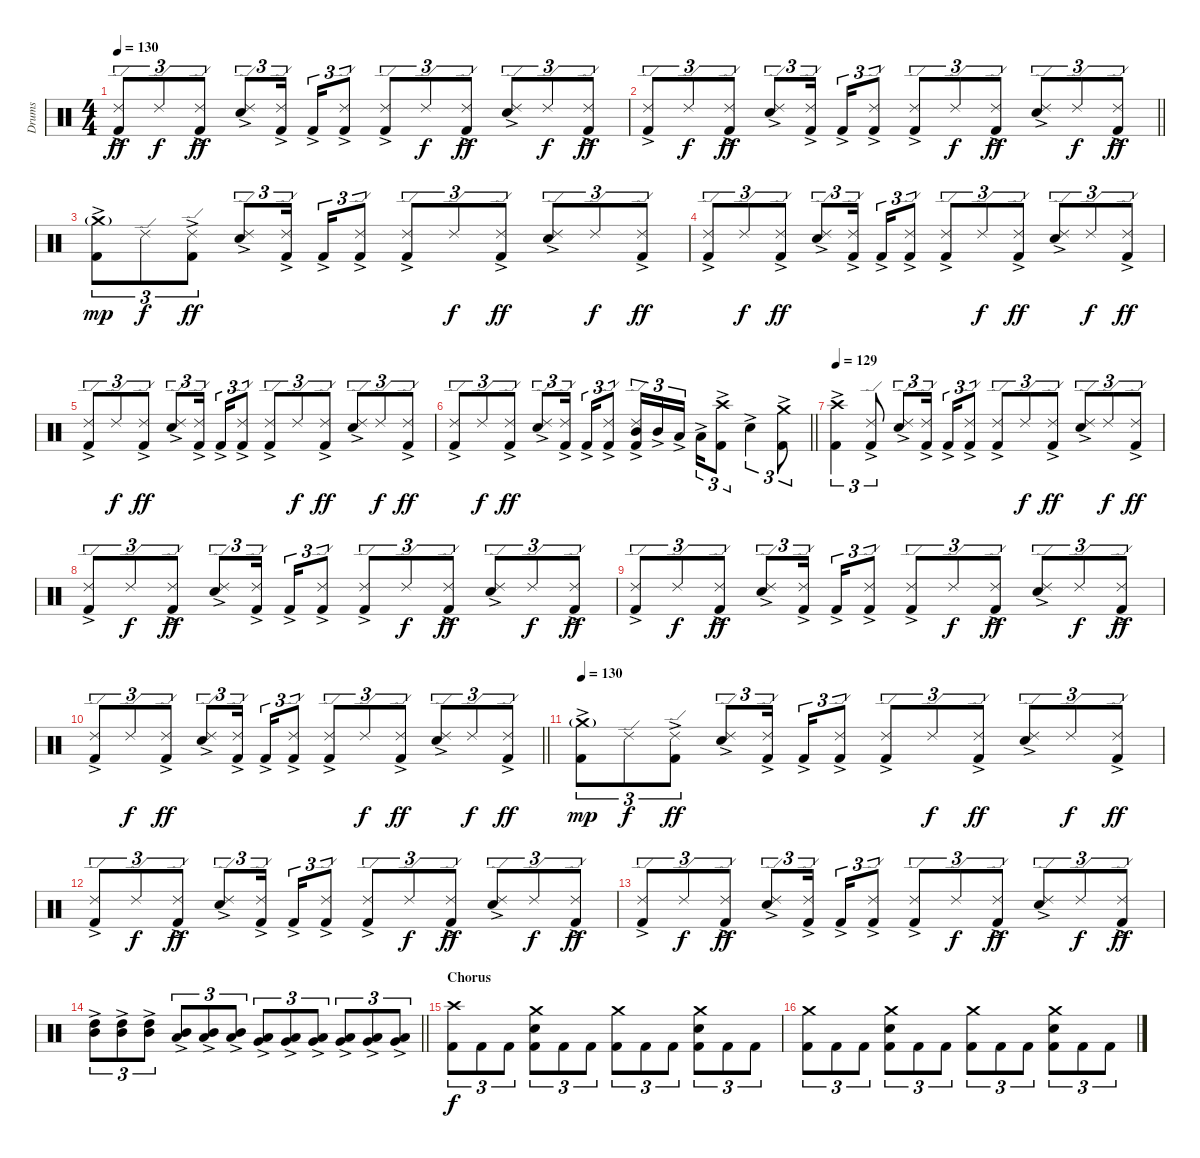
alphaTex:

\track ("Drums" "Drums") {instrument percussion}
\staff {score}
\articulation defaults
\ts (4 4)
\tempo 130
\clef neutral
\ks c
("Kick (hit) 2"{ac} "Ride (edge) 2").8{tu (3 2) dy ff} "Ride (edge) 2".8{tu (3 2) dy f} ("Kick (hit) 2"{ac} "Ride (edge) 2").8{tu (3 2) dy ff} ("Snare (hit) 2"{ac} "Ride (edge) 2").8{tu (3 2)} ("Kick (hit) 2"{ac} "Ride (edge) 2").16{tu (3 2) beam splitsecondary} "Kick (hit) 2"{ac}.16{tu (3 2)} ("Kick (hit) 2"{ac} "Ride (edge) 2").8{tu (3 2)} ("Kick (hit) 2"{ac} "Ride (edge) 2").8{tu (3 2)} "Ride (edge) 2".8{tu (3 2) dy f} ("Kick (hit) 2"{ac} "Ride (edge) 2").8{tu (3 2) dy ff} ("Snare (hit) 2"{ac} "Ride (edge) 2").8{tu (3 2)} "Ride (edge) 2".8{tu (3 2) dy f} ("Kick (hit) 2"{ac} "Ride (edge) 2").8{tu (3 2) dy ff} |
\barLineRight lightlight
("Kick (hit) 2"{ac} "Ride (edge) 2").8{tu (3 2)} "Ride (edge) 2".8{tu (3 2) dy f} ("Kick (hit) 2"{ac} "Ride (edge) 2").8{tu (3 2) dy ff} ("Snare (hit) 2"{ac} "Ride (edge) 2").8{tu (3 2)} ("Kick (hit) 2"{ac} "Ride (edge) 2").16{tu (3 2) beam splitsecondary} "Kick (hit) 2"{ac}.16{tu (3 2)} ("Kick (hit) 2"{ac} "Ride (edge) 2").8{tu (3 2)} ("Kick (hit) 2"{ac} "Ride (edge) 2").8{tu (3 2)} "Ride (edge) 2".8{tu (3 2) dy f} ("Kick (hit) 2"{ac} "Ride (edge) 2").8{tu (3 2) dy ff} ("Snare (hit) 2"{ac} "Ride (edge) 2").8{tu (3 2)} "Ride (edge) 2".8{tu (3 2) dy f} ("Kick (hit) 2"{ac} "Ride (edge) 2").8{tu (3 2) dy ff} |
\section ("" "")
("Kick (hit) 2"{ac} "Crash medium (hit)"{g}).8{tu (3 2) dy mp} "Ride (edge) 2".8{tu (3 2) dy f} ("Kick (hit) 2"{ac} "Ride (edge) 2").8{tu (3 2) dy ff} ("Snare (hit) 2"{ac} "Ride (edge) 2").8{tu (3 2)} ("Kick (hit) 2"{ac} "Ride (edge) 2").16{tu (3 2) beam splitsecondary} "Kick (hit) 2"{ac}.16{tu (3 2)} ("Kick (hit) 2"{ac} "Ride (edge) 2").8{tu (3 2)} ("Kick (hit) 2"{ac} "Ride (edge) 2").8{tu (3 2)} "Ride (edge) 2".8{tu (3 2) dy f} ("Kick (hit) 2"{ac} "Ride (edge) 2").8{tu (3 2) dy ff} ("Snare (hit) 2"{ac} "Ride (edge) 2").8{tu (3 2)} "Ride (edge) 2".8{tu (3 2) dy f} ("Kick (hit) 2"{ac} "Ride (edge) 2").8{tu (3 2) dy ff} |
("Kick (hit) 2"{ac} "Ride (edge) 2").8{tu (3 2)} "Ride (edge) 2".8{tu (3 2) dy f} ("Kick (hit) 2"{ac} "Ride (edge) 2").8{tu (3 2) dy ff} ("Snare (hit) 2"{ac} "Ride (edge) 2").8{tu (3 2)} ("Kick (hit) 2"{ac} "Ride (edge) 2").16{tu (3 2) beam splitsecondary} "Kick (hit) 2"{ac}.16{tu (3 2)} ("Kick (hit) 2"{ac} "Ride (edge) 2").8{tu (3 2)} ("Kick (hit) 2"{ac} "Ride (edge) 2").8{tu (3 2)} "Ride (edge) 2".8{tu (3 2) dy f} ("Kick (hit) 2"{ac} "Ride (edge) 2").8{tu (3 2) dy ff} ("Snare (hit) 2"{ac} "Ride (edge) 2").8{tu (3 2)} "Ride (edge) 2".8{tu (3 2) dy f} ("Kick (hit) 2"{ac} "Ride (edge) 2").8{tu (3 2) dy ff} |
("Kick (hit) 2"{ac} "Ride (edge) 2").8{tu (3 2)} "Ride (edge) 2".8{tu (3 2) dy f} ("Kick (hit) 2"{ac} "Ride (edge) 2").8{tu (3 2) dy ff} ("Snare (hit) 2"{ac} "Ride (edge) 2").8{tu (3 2)} ("Kick (hit) 2"{ac} "Ride (edge) 2").16{tu (3 2) beam splitsecondary} "Kick (hit) 2"{ac}.16{tu (3 2)} ("Kick (hit) 2"{ac} "Ride (edge) 2").8{tu (3 2)} ("Kick (hit) 2"{ac} "Ride (edge) 2").8{tu (3 2)} "Ride (edge) 2".8{tu (3 2) dy f} ("Kick (hit) 2"{ac} "Ride (edge) 2").8{tu (3 2) dy ff} ("Snare (hit) 2"{ac} "Ride (edge) 2").8{tu (3 2)} "Ride (edge) 2".8{tu (3 2) dy f} ("Kick (hit) 2"{ac} "Ride (edge) 2").8{tu (3 2) dy ff} |
\barLineRight lightlight
("Kick (hit) 2"{ac} "Ride (edge) 2").8{tu (3 2)} "Ride (edge) 2".8{tu (3 2) dy f} ("Kick (hit) 2"{ac} "Ride (edge) 2").8{tu (3 2) dy ff} ("Snare (hit) 2"{ac} "Ride (edge) 2").8{tu (3 2)} ("Kick (hit) 2"{ac} "Ride (edge) 2").16{tu (3 2) beam splitsecondary} "Kick (hit) 2"{ac}.16{tu (3 2)} ("Kick (hit) 2"{ac} "Ride (edge) 2").8{tu (3 2)} ("Kick (hit) 2"{ac} "Mid Tom (hit)"{ac} "Ride (edge) 2").16{tu (3 2)} "Mid Tom (hit)"{ac}.16{tu (3 2)} "Low Tom (hit)"{ac}.16{tu (3 2) beam splitsecondary} "Low Tom (hit)"{ac}.16{tu (3 2)} ("Kick (hit) 2"{ac} "Crash high (hit)").8{tu (3 2)} "Snare (hit) 2"{ac}.4{tu (3 2)} ("Kick (hit) 2"{ac} "Crash medium (hit)").8{tu (3 2)} |
\section ("" "")
\tempo 129
("Kick (hit) 2"{ac} "Crash high (hit)").4{tu (3 2)} ("Kick (hit) 2"{ac} "Ride (edge) 2").8{tu (3 2)} ("Snare (hit) 2"{ac} "Ride (edge) 2").8{tu (3 2)} ("Kick (hit) 2"{ac} "Ride (edge) 2").16{tu (3 2) beam splitsecondary} "Kick (hit) 2"{ac}.16{tu (3 2)} ("Kick (hit) 2"{ac} "Ride (edge) 2").8{tu (3 2)} ("Kick (hit) 2"{ac} "Ride (edge) 2").8{tu (3 2)} "Ride (edge) 2".8{tu (3 2) dy f} ("Kick (hit) 2"{ac} "Ride (edge) 2").8{tu (3 2) dy ff} ("Snare (hit) 2"{ac} "Ride (edge) 2").8{tu (3 2)} "Ride (edge) 2".8{tu (3 2) dy f} ("Kick (hit) 2"{ac} "Ride (edge) 2").8{tu (3 2) dy ff} |
("Kick (hit) 2"{ac} "Ride (edge) 2").8{tu (3 2)} "Ride (edge) 2".8{tu (3 2) dy f} ("Kick (hit) 2"{ac} "Ride (edge) 2").8{tu (3 2) dy ff} ("Snare (hit) 2"{ac} "Ride (edge) 2").8{tu (3 2)} ("Kick (hit) 2"{ac} "Ride (edge) 2").16{tu (3 2) beam splitsecondary} "Kick (hit) 2"{ac}.16{tu (3 2)} ("Kick (hit) 2"{ac} "Ride (edge) 2").8{tu (3 2)} ("Kick (hit) 2"{ac} "Ride (edge) 2").8{tu (3 2)} "Ride (edge) 2".8{tu (3 2) dy f} ("Kick (hit) 2"{ac} "Ride (edge) 2").8{tu (3 2) dy ff} ("Snare (hit) 2"{ac} "Ride (edge) 2").8{tu (3 2)} "Ride (edge) 2".8{tu (3 2) dy f} ("Kick (hit) 2"{ac} "Ride (edge) 2").8{tu (3 2) dy ff} |
("Kick (hit) 2"{ac} "Ride (edge) 2").8{tu (3 2)} "Ride (edge) 2".8{tu (3 2) dy f} ("Kick (hit) 2"{ac} "Ride (edge) 2").8{tu (3 2) dy ff} ("Snare (hit) 2"{ac} "Ride (edge) 2").8{tu (3 2)} ("Kick (hit) 2"{ac} "Ride (edge) 2").16{tu (3 2) beam splitsecondary} "Kick (hit) 2"{ac}.16{tu (3 2)} ("Kick (hit) 2"{ac} "Ride (edge) 2").8{tu (3 2)} ("Kick (hit) 2"{ac} "Ride (edge) 2").8{tu (3 2)} "Ride (edge) 2".8{tu (3 2) dy f} ("Kick (hit) 2"{ac} "Ride (edge) 2").8{tu (3 2) dy ff} ("Snare (hit) 2"{ac} "Ride (edge) 2").8{tu (3 2)} "Ride (edge) 2".8{tu (3 2) dy f} ("Kick (hit) 2"{ac} "Ride (edge) 2").8{tu (3 2) dy ff} |
\barLineRight lightlight
("Kick (hit) 2"{ac} "Ride (edge) 2").8{tu (3 2)} "Ride (edge) 2".8{tu (3 2) dy f} ("Kick (hit) 2"{ac} "Ride (edge) 2").8{tu (3 2) dy ff} ("Snare (hit) 2"{ac} "Ride (edge) 2").8{tu (3 2)} ("Kick (hit) 2"{ac} "Ride (edge) 2").16{tu (3 2) beam splitsecondary} "Kick (hit) 2"{ac}.16{tu (3 2)} ("Kick (hit) 2"{ac} "Ride (edge) 2").8{tu (3 2)} ("Kick (hit) 2"{ac} "Ride (edge) 2").8{tu (3 2)} "Ride (edge) 2".8{tu (3 2) dy f} ("Kick (hit) 2"{ac} "Ride (edge) 2").8{tu (3 2) dy ff} ("Snare (hit) 2"{ac} "Ride (edge) 2").8{tu (3 2)} "Ride (edge) 2".8{tu (3 2) dy f} ("Kick (hit) 2"{ac} "Ride (edge) 2").8{tu (3 2) dy ff} |
\section ("" "")
\tempo 130
("Kick (hit) 2"{ac} "Crash medium (hit)"{g}).8{tu (3 2) dy mp} "Ride (edge) 2".8{tu (3 2) dy f} ("Kick (hit) 2"{ac} "Ride (edge) 2").8{tu (3 2) dy ff} ("Snare (hit) 2"{ac} "Ride (edge) 2").8{tu (3 2)} ("Kick (hit) 2"{ac} "Ride (edge) 2").16{tu (3 2) beam splitsecondary} "Kick (hit) 2"{ac}.16{tu (3 2)} ("Kick (hit) 2"{ac} "Ride (edge) 2").8{tu (3 2)} ("Kick (hit) 2"{ac} "Ride (edge) 2").8{tu (3 2)} "Ride (edge) 2".8{tu (3 2) dy f} ("Kick (hit) 2"{ac} "Ride (edge) 2").8{tu (3 2) dy ff} ("Snare (hit) 2"{ac} "Ride (edge) 2").8{tu (3 2)} "Ride (edge) 2".8{tu (3 2) dy f} ("Kick (hit) 2"{ac} "Ride (edge) 2").8{tu (3 2) dy ff} |
("Kick (hit) 2"{ac} "Ride (edge) 2").8{tu (3 2)} "Ride (edge) 2".8{tu (3 2) dy f} ("Kick (hit) 2"{ac} "Ride (edge) 2").8{tu (3 2) dy ff} ("Snare (hit) 2"{ac} "Ride (edge) 2").8{tu (3 2)} ("Kick (hit) 2"{ac} "Ride (edge) 2").16{tu (3 2) beam splitsecondary} "Kick (hit) 2"{ac}.16{tu (3 2)} ("Kick (hit) 2"{ac} "Ride (edge) 2").8{tu (3 2)} ("Kick (hit) 2"{ac} "Ride (edge) 2").8{tu (3 2)} "Ride (edge) 2".8{tu (3 2) dy f} ("Kick (hit) 2"{ac} "Ride (edge) 2").8{tu (3 2) dy ff} ("Snare (hit) 2"{ac} "Ride (edge) 2").8{tu (3 2)} "Ride (edge) 2".8{tu (3 2) dy f} ("Kick (hit) 2"{ac} "Ride (edge) 2").8{tu (3 2) dy ff} |
("Kick (hit) 2"{ac} "Ride (edge) 2").8{tu (3 2)} "Ride (edge) 2".8{tu (3 2) dy f} ("Kick (hit) 2"{ac} "Ride (edge) 2").8{tu (3 2) dy ff} ("Snare (hit) 2"{ac} "Ride (edge) 2").8{tu (3 2)} ("Kick (hit) 2"{ac} "Ride (edge) 2").16{tu (3 2) beam splitsecondary} "Kick (hit) 2"{ac}.16{tu (3 2)} ("Kick (hit) 2"{ac} "Ride (edge) 2").8{tu (3 2)} ("Kick (hit) 2"{ac} "Ride (edge) 2").8{tu (3 2)} "Ride (edge) 2".8{tu (3 2) dy f} ("Kick (hit) 2"{ac} "Ride (edge) 2").8{tu (3 2) dy ff} ("Snare (hit) 2"{ac} "Ride (edge) 2").8{tu (3 2)} "Ride (edge) 2".8{tu (3 2) dy f} ("Kick (hit) 2"{ac} "Ride (edge) 2").8{tu (3 2) dy ff} |
\barLineRight lightlight
("Mid Tom (hit)"{ac} "High Tom (hit)").8{tu (3 2)} ("Mid Tom (hit)"{ac} "High Tom (hit)").8{tu (3 2)} ("Mid Tom (hit)"{ac} "High Tom (hit)").8{tu (3 2)} ("Low Tom (hit)"{ac} "Mid Tom (hit)").8{tu (3 2)} ("Low Tom (hit)"{ac} "Mid Tom (hit)").8{tu (3 2)} ("Low Tom (hit)"{ac} "Mid Tom (hit)").8{tu (3 2)} ("Very Low Tom (hit)"{ac} "Low Tom (hit)").8{tu (3 2)} ("Very Low Tom (hit)"{ac} "Low Tom (hit)").8{tu (3 2)} ("Very Low Tom (hit)"{ac} "Low Tom (hit)").8{tu (3 2)} ("Low Floor Tom (hit)"{ac} "Very Low Tom (hit)").8{tu (3 2)} ("Low Floor Tom (hit)"{ac} "Very Low Tom (hit)").8{tu (3 2)} ("Low Floor Tom (hit)"{ac} "Very Low Tom (hit)").8{tu (3 2)} |
\section ("" "Chorus")
("Kick (hit) 2" "Crash high (hit)").8{tu (3 2) dy f} "Kick (hit) 2".8{tu (3 2)} "Kick (hit) 2".8{tu (3 2)} ("Kick (hit) 2" "Snare (hit) 2" "Crash medium (hit)").8{tu (3 2)} "Kick (hit) 2".8{tu (3 2)} "Kick (hit) 2".8{tu (3 2)} ("Kick (hit) 2" "Crash medium (hit)").8{tu (3 2)} "Kick (hit) 2".8{tu (3 2)} "Kick (hit) 2".8{tu (3 2)} ("Kick (hit) 2" "Snare (hit) 2" "Crash medium (hit)").8{tu (3 2)} "Kick (hit) 2".8{tu (3 2)} "Kick (hit) 2".8{tu (3 2)} |
("Kick (hit) 2" "Crash medium (hit)").8{tu (3 2)} "Kick (hit) 2".8{tu (3 2)} "Kick (hit) 2".8{tu (3 2)} ("Kick (hit) 2" "Snare (hit) 2" "Crash medium (hit)").8{tu (3 2)} "Kick (hit) 2".8{tu (3 2)} "Kick (hit) 2".8{tu (3 2)} ("Kick (hit) 2" "Crash medium (hit)").8{tu (3 2)} "Kick (hit) 2".8{tu (3 2)} "Kick (hit) 2".8{tu (3 2)} ("Kick (hit) 2" "Snare (hit) 2" "Crash medium (hit)").8{tu (3 2)} "Kick (hit) 2".8{tu (3 2)} "Kick (hit) 2".8{tu (3 2)}
